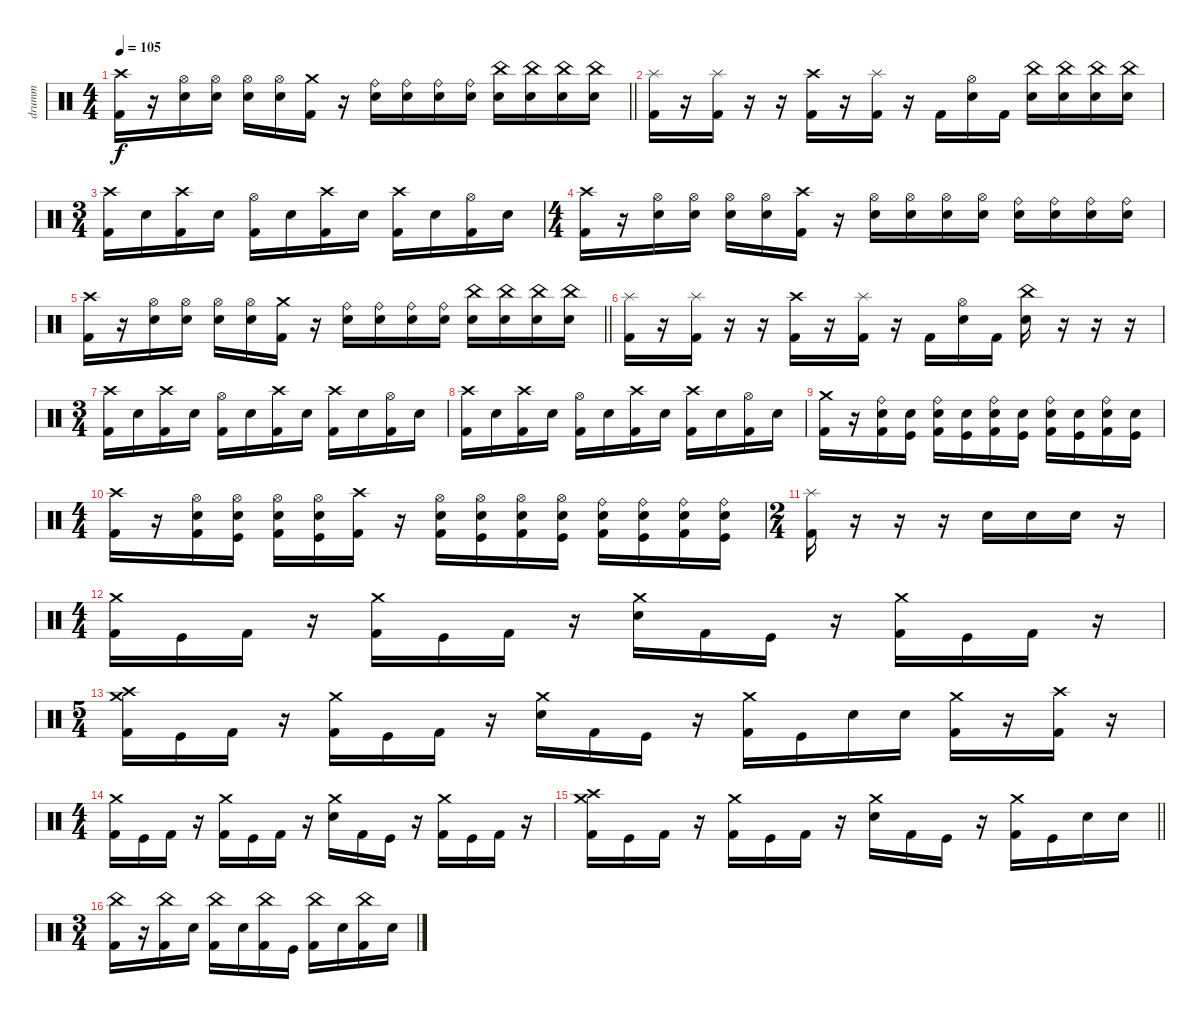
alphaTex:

\track ("drumm" "drumm") {instrument percussion}
\staff
\articulation defaults
\ts (4 4)
\tempo 105
\clef neutral
\barLineRight lightlight
\ks c
("Kick (hit) 2" "Crash high (hit)").16{dy f} r.16 ("Electric Snare (hit)" "Hi-Hat (open)").16 ("Electric Snare (hit)" "Hi-Hat (open)").16 ("Electric Snare (hit)" "Hi-Hat (open)").16 ("Electric Snare (hit)" "Hi-Hat (open)").16 ("Kick (hit) 2" "Crash medium (hit)").16 r.16 ("Electric Snare (hit)" "Ride (bell)").16 ("Electric Snare (hit)" "Ride (bell)").16 ("Electric Snare (hit)" "Ride (bell)").16 ("Electric Snare (hit)" "Ride (bell)").16 ("Electric Snare (hit)" "China (hit)").16 ("Electric Snare (hit)" "China (hit)").16 ("Electric Snare (hit)" "China (hit)").16 ("Electric Snare (hit)" "China (hit)").16 |
\section ("" "")
("Kick (hit) 2" "Splash (hit)").16 r.16 ("Kick (hit) 2" "Splash (hit)").16 r.16 r.16 ("Kick (hit) 2" "Crash high (hit)").16 r.16 ("Kick (hit) 2" "Splash (hit)").16 r.16 "Kick (hit) 2".16 ("Electric Snare (hit)" "Hi-Hat (open)").16 "Kick (hit) 2".16 ("Electric Snare (hit)" "China (hit)").16 ("Electric Snare (hit)" "China (hit)").16 ("Electric Snare (hit)" "China (hit)").16 ("Electric Snare (hit)" "China (hit)").16 |
\ts (3 4)
("Kick (hit) 2" "Crash high (hit)").16 "Electric Snare (hit)".16 ("Kick (hit) 2" "Crash high (hit)").16 "Electric Snare (hit)".16 ("Kick (hit) 2" "Hi-Hat (open)").16 "Electric Snare (hit)".16 ("Kick (hit) 2" "Crash high (hit)").16 "Electric Snare (hit)".16 ("Kick (hit) 2" "Crash high (hit)").16 "Electric Snare (hit)".16 ("Kick (hit) 2" "Hi-Hat (open)").16 "Electric Snare (hit)".16 |
\ts (4 4)
("Kick (hit) 2" "Crash high (hit)").16 r.16 ("Electric Snare (hit)" "Hi-Hat (open)").16 ("Electric Snare (hit)" "Hi-Hat (open)").16 ("Electric Snare (hit)" "Hi-Hat (open)").16 ("Electric Snare (hit)" "Hi-Hat (open)").16 ("Kick (hit) 2" "Crash high (hit)").16 r.16 ("Electric Snare (hit)" "Hi-Hat (open)").16 ("Electric Snare (hit)" "Hi-Hat (open)").16 ("Electric Snare (hit)" "Hi-Hat (open)").16 ("Electric Snare (hit)" "Hi-Hat (open)").16 ("Electric Snare (hit)" "Ride (bell)").16 ("Electric Snare (hit)" "Ride (bell)").16 ("Electric Snare (hit)" "Ride (bell)").16 ("Electric Snare (hit)" "Ride (bell)").16 |
\barLineRight lightlight
("Kick (hit) 2" "Crash high (hit)").16 r.16 ("Electric Snare (hit)" "Hi-Hat (open)").16 ("Electric Snare (hit)" "Hi-Hat (open)").16 ("Electric Snare (hit)" "Hi-Hat (open)").16 ("Electric Snare (hit)" "Hi-Hat (open)").16 ("Kick (hit) 2" "Crash medium (hit)").16 r.16 ("Electric Snare (hit)" "Ride (bell)").16 ("Electric Snare (hit)" "Ride (bell)").16 ("Electric Snare (hit)" "Ride (bell)").16 ("Electric Snare (hit)" "Ride (bell)").16 ("Electric Snare (hit)" "China (hit)").16 ("Electric Snare (hit)" "China (hit)").16 ("Electric Snare (hit)" "China (hit)").16 ("Electric Snare (hit)" "China (hit)").16 |
\section ("" "")
("Kick (hit) 2" "Splash (hit)").16 r.16 ("Kick (hit) 2" "Splash (hit)").16 r.16 r.16 ("Kick (hit) 2" "Crash high (hit)").16 r.16 ("Kick (hit) 2" "Splash (hit)").16 r.16 "Kick (hit) 2".16 ("Electric Snare (hit)" "Hi-Hat (open)").16 "Kick (hit) 2".16 ("Electric Snare (hit)" "China (hit)").16 r.16 r.16 r.16 |
\ts (3 4)
("Kick (hit) 2" "Crash high (hit)").16 "Electric Snare (hit)".16 ("Kick (hit) 2" "Crash high (hit)").16 "Electric Snare (hit)".16 ("Kick (hit) 2" "Hi-Hat (open)").16 "Electric Snare (hit)".16 ("Kick (hit) 2" "Crash high (hit)").16 "Electric Snare (hit)".16 ("Kick (hit) 2" "Crash high (hit)").16 "Electric Snare (hit)".16 ("Kick (hit) 2" "Hi-Hat (open)").16 "Electric Snare (hit)".16 |
("Kick (hit) 2" "Crash high (hit)").16 "Electric Snare (hit)".16 ("Kick (hit) 2" "Crash high (hit)").16 "Electric Snare (hit)".16 ("Kick (hit) 2" "Hi-Hat (open)").16 "Electric Snare (hit)".16 ("Kick (hit) 2" "Crash high (hit)").16 "Electric Snare (hit)".16 ("Kick (hit) 2" "Crash high (hit)").16 "Electric Snare (hit)".16 ("Kick (hit) 2" "Hi-Hat (open)").16 "Electric Snare (hit)".16 |
("Kick (hit) 2" "Crash medium (hit)").16 r.16 ("Electric Snare (hit)" "Ride (bell)" "Kick (hit) 2").16 ("Electric Snare (hit)" "Kick (hit)").16 ("Electric Snare (hit)" "Ride (bell)" "Kick (hit) 2").16 ("Electric Snare (hit)" "Kick (hit)").16 ("Electric Snare (hit)" "Ride (bell)" "Kick (hit) 2").16 ("Electric Snare (hit)" "Kick (hit)").16 ("Electric Snare (hit)" "Ride (bell)" "Kick (hit) 2").16 ("Electric Snare (hit)" "Kick (hit)").16 ("Electric Snare (hit)" "Ride (bell)" "Kick (hit) 2").16 ("Electric Snare (hit)" "Kick (hit)").16 |
\ts (4 4)
("Kick (hit) 2" "Crash high (hit)").16 r.16 ("Electric Snare (hit)" "Hi-Hat (open)" "Kick (hit) 2").16 ("Electric Snare (hit)" "Hi-Hat (open)" "Kick (hit)").16 ("Electric Snare (hit)" "Hi-Hat (open)" "Kick (hit) 2").16 ("Electric Snare (hit)" "Hi-Hat (open)" "Kick (hit)").16 ("Kick (hit) 2" "Crash high (hit)").16 r.16 ("Electric Snare (hit)" "Hi-Hat (open)" "Kick (hit) 2").16 ("Electric Snare (hit)" "Hi-Hat (open)" "Kick (hit)").16 ("Electric Snare (hit)" "Hi-Hat (open)" "Kick (hit) 2").16 ("Electric Snare (hit)" "Hi-Hat (open)" "Kick (hit)").16 ("Electric Snare (hit)" "Ride (bell)" "Kick (hit) 2").16 ("Electric Snare (hit)" "Ride (bell)" "Kick (hit)").16 ("Electric Snare (hit)" "Ride (bell)" "Kick (hit) 2").16 ("Electric Snare (hit)" "Ride (bell)" "Kick (hit)").16 |
\ts (2 4)
("Kick (hit) 2" "Splash (hit)").16 r.16 r.16 r.16 "Electric Snare (hit)".16 "Electric Snare (hit)".16 "Electric Snare (hit)".16 r.16 |
\ts (4 4)
("Kick (hit) 2" "Crash medium (hit)").16 "Kick (hit)".16 "Kick (hit) 2".16 r.16 ("Kick (hit) 2" "Crash medium (hit)").16 "Kick (hit)".16 "Kick (hit) 2".16 r.16 ("Electric Snare (hit)" "Crash medium (hit)").16 "Kick (hit) 2".16 "Kick (hit)".16 r.16 ("Kick (hit) 2" "Crash medium (hit)").16 "Kick (hit)".16 "Kick (hit) 2".16 r.16 |
\ts (5 4)
("Kick (hit) 2" "Crash medium (hit)" "Crash high (hit)").16 "Kick (hit)".16 "Kick (hit) 2".16 r.16 ("Kick (hit) 2" "Crash medium (hit)").16 "Kick (hit)".16 "Kick (hit) 2".16 r.16 ("Electric Snare (hit)" "Crash medium (hit)").16 "Kick (hit) 2".16 "Kick (hit)".16 r.16 ("Kick (hit) 2" "Crash medium (hit)").16 "Kick (hit)".16 "Electric Snare (hit)".16 "Electric Snare (hit)".16 ("Kick (hit) 2" "Crash medium (hit)").16 r.16 ("Kick (hit) 2" "Crash high (hit)").16 r.16 |
\ts (4 4)
("Kick (hit) 2" "Crash medium (hit)").16 "Kick (hit)".16 "Kick (hit) 2".16 r.16 ("Kick (hit) 2" "Crash medium (hit)").16 "Kick (hit)".16 "Kick (hit) 2".16 r.16 ("Electric Snare (hit)" "Crash medium (hit)").16 "Kick (hit) 2".16 "Kick (hit)".16 r.16 ("Kick (hit) 2" "Crash medium (hit)").16 "Kick (hit)".16 "Kick (hit) 2".16 r.16 |
\barLineRight lightlight
("Kick (hit) 2" "Crash medium (hit)" "Crash high (hit)").16 "Kick (hit)".16 "Kick (hit) 2".16 r.16 ("Kick (hit) 2" "Crash medium (hit)").16 "Kick (hit)".16 "Kick (hit) 2".16 r.16 ("Electric Snare (hit)" "Crash medium (hit)").16 "Kick (hit) 2".16 "Kick (hit)".16 r.16 ("Kick (hit) 2" "Crash medium (hit)").16 "Kick (hit)".16 "Electric Snare (hit)".16 "Electric Snare (hit)".16 |
\ts (3 4)
("Kick (hit) 2" "China (hit)").16 r.16 ("Kick (hit) 2" "China (hit)").16 "Electric Snare (hit)".16 ("Kick (hit) 2" "China (hit)").16 "Electric Snare (hit)".16 ("Kick (hit) 2" "China (hit)").16 "Kick (hit)".16 ("Kick (hit) 2" "China (hit)").16 "Electric Snare (hit)".16 ("Kick (hit) 2" "China (hit)").16 "Electric Snare (hit)".16
